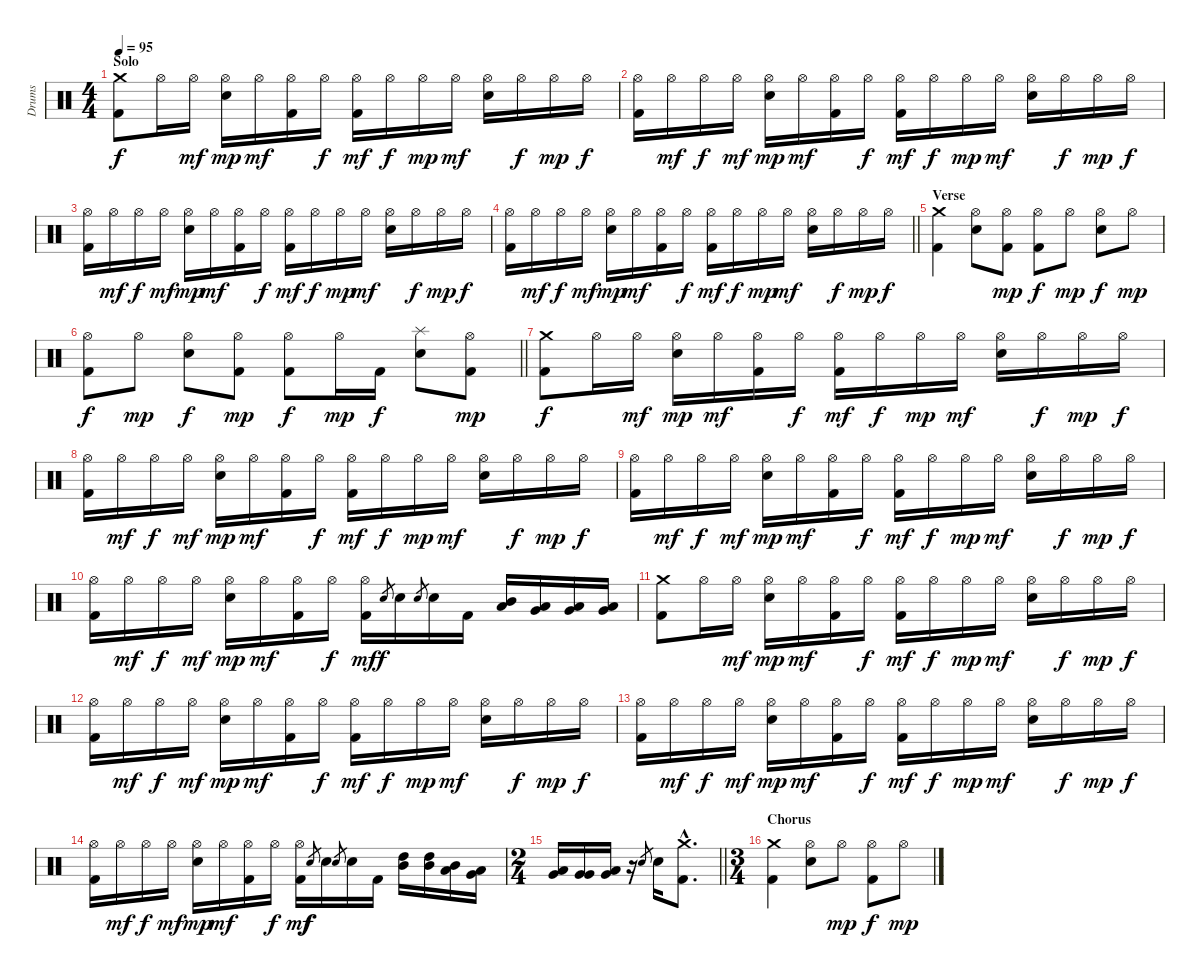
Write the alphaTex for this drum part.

\track ("Drums" "Drums") {instrument percussion}
\staff {score}
\articulation defaults
\ts (4 4)
\section ("" "Solo")
\tempo 95
\clef neutral
\ks c
("Crash medium (hit)" "Kick (hit) 2").8{dy f} "Hi-Hat (open)".16 "Hi-Hat (open)".16{dy mf} ("Hi-Hat (open)" "Snare (hit) 2").16{dy mp} "Hi-Hat (open)".16{dy mf} ("Hi-Hat (open)" "Kick (hit) 2").16 "Hi-Hat (open)".16{dy f} ("Hi-Hat (open)" "Kick (hit) 2").16{dy mf} "Hi-Hat (open)".16{dy f} "Hi-Hat (open)".16{dy mp} "Hi-Hat (open)".16{dy mf} ("Hi-Hat (open)" "Snare (hit) 2").16 "Hi-Hat (open)".16{dy f} "Hi-Hat (open)".16{dy mp} "Hi-Hat (open)".16{dy f} |
("Hi-Hat (open)" "Kick (hit) 2").16 "Hi-Hat (open)".16{dy mf} "Hi-Hat (open)".16{dy f} "Hi-Hat (open)".16{dy mf} ("Hi-Hat (open)" "Snare (hit) 2").16{dy mp} "Hi-Hat (open)".16{dy mf} ("Hi-Hat (open)" "Kick (hit) 2").16 "Hi-Hat (open)".16{dy f} ("Hi-Hat (open)" "Kick (hit) 2").16{dy mf} "Hi-Hat (open)".16{dy f} "Hi-Hat (open)".16{dy mp} "Hi-Hat (open)".16{dy mf} ("Hi-Hat (open)" "Snare (hit) 2").16 "Hi-Hat (open)".16{dy f} "Hi-Hat (open)".16{dy mp} "Hi-Hat (open)".16{dy f} |
("Hi-Hat (open)" "Kick (hit) 2").16 "Hi-Hat (open)".16{dy mf} "Hi-Hat (open)".16{dy f} "Hi-Hat (open)".16{dy mf} ("Hi-Hat (open)" "Snare (hit) 2").16{dy mp} "Hi-Hat (open)".16{dy mf} ("Hi-Hat (open)" "Kick (hit) 2").16 "Hi-Hat (open)".16{dy f} ("Hi-Hat (open)" "Kick (hit) 2").16{dy mf} "Hi-Hat (open)".16{dy f} "Hi-Hat (open)".16{dy mp} "Hi-Hat (open)".16{dy mf} ("Hi-Hat (open)" "Snare (hit) 2").16 "Hi-Hat (open)".16{dy f} "Hi-Hat (open)".16{dy mp} "Hi-Hat (open)".16{dy f} |
\barLineRight lightlight
("Hi-Hat (open)" "Kick (hit) 2").16 "Hi-Hat (open)".16{dy mf} "Hi-Hat (open)".16{dy f} "Hi-Hat (open)".16{dy mf} ("Hi-Hat (open)" "Snare (hit) 2").16{dy mp} "Hi-Hat (open)".16{dy mf} ("Hi-Hat (open)" "Kick (hit) 2").16 "Hi-Hat (open)".16{dy f} ("Hi-Hat (open)" "Kick (hit) 2").16{dy mf} "Hi-Hat (open)".16{dy f} "Hi-Hat (open)".16{dy mp} "Hi-Hat (open)".16{dy mf} ("Hi-Hat (open)" "Snare (hit) 2").16 "Hi-Hat (open)".16{dy f} "Hi-Hat (open)".16{dy mp} "Hi-Hat (open)".16{dy f} |
\section ("" "Verse")
("Crash medium (hit)" "Kick (hit) 2").4 ("Hi-Hat (open)" "Snare (hit) 2").8 ("Hi-Hat (open)" "Kick (hit) 2").8{dy mp} ("Hi-Hat (open)" "Kick (hit) 2").8{dy f} "Hi-Hat (open)".8{dy mp} ("Hi-Hat (open)" "Snare (hit) 2").8{dy f} "Hi-Hat (open)".8{dy mp} |
\barLineRight lightlight
("Hi-Hat (open)" "Kick (hit) 2").8{dy f} "Hi-Hat (open)".8{dy mp} ("Hi-Hat (open)" "Snare (hit) 2").8{dy f} ("Hi-Hat (open)" "Kick (hit) 2").8{dy mp} ("Hi-Hat (open)" "Kick (hit) 2").8{dy f} "Hi-Hat (open)".16{dy mp} "Kick (hit) 2".16{dy f} ("Splash (hit)" "Snare (hit) 2").8 ("Hi-Hat (open)" "Kick (hit) 2").8{dy mp} |
("Crash medium (hit)" "Kick (hit) 2").8{dy f} "Hi-Hat (open)".16 "Hi-Hat (open)".16{dy mf} ("Hi-Hat (open)" "Snare (hit) 2").16{dy mp} "Hi-Hat (open)".16{dy mf} ("Hi-Hat (open)" "Kick (hit) 2").16 "Hi-Hat (open)".16{dy f} ("Hi-Hat (open)" "Kick (hit) 2").16{dy mf} "Hi-Hat (open)".16{dy f} "Hi-Hat (open)".16{dy mp} "Hi-Hat (open)".16{dy mf} ("Hi-Hat (open)" "Snare (hit) 2").16 "Hi-Hat (open)".16{dy f} "Hi-Hat (open)".16{dy mp} "Hi-Hat (open)".16{dy f} |
("Hi-Hat (open)" "Kick (hit) 2").16 "Hi-Hat (open)".16{dy mf} "Hi-Hat (open)".16{dy f} "Hi-Hat (open)".16{dy mf} ("Hi-Hat (open)" "Snare (hit) 2").16{dy mp} "Hi-Hat (open)".16{dy mf} ("Hi-Hat (open)" "Kick (hit) 2").16 "Hi-Hat (open)".16{dy f} ("Hi-Hat (open)" "Kick (hit) 2").16{dy mf} "Hi-Hat (open)".16{dy f} "Hi-Hat (open)".16{dy mp} "Hi-Hat (open)".16{dy mf} ("Hi-Hat (open)" "Snare (hit) 2").16 "Hi-Hat (open)".16{dy f} "Hi-Hat (open)".16{dy mp} "Hi-Hat (open)".16{dy f} |
("Hi-Hat (open)" "Kick (hit) 2").16 "Hi-Hat (open)".16{dy mf} "Hi-Hat (open)".16{dy f} "Hi-Hat (open)".16{dy mf} ("Hi-Hat (open)" "Snare (hit) 2").16{dy mp} "Hi-Hat (open)".16{dy mf} ("Hi-Hat (open)" "Kick (hit) 2").16 "Hi-Hat (open)".16{dy f} ("Hi-Hat (open)" "Kick (hit) 2").16{dy mf} "Hi-Hat (open)".16{dy f} "Hi-Hat (open)".16{dy mp} "Hi-Hat (open)".16{dy mf} ("Hi-Hat (open)" "Snare (hit) 2").16 "Hi-Hat (open)".16{dy f} "Hi-Hat (open)".16{dy mp} "Hi-Hat (open)".16{dy f} |
("Hi-Hat (open)" "Kick (hit) 2").16 "Hi-Hat (open)".16{dy mf} "Hi-Hat (open)".16{dy f} "Hi-Hat (open)".16{dy mf} ("Hi-Hat (open)" "Snare (hit) 2").16{dy mp} "Hi-Hat (open)".16{dy mf} ("Hi-Hat (open)" "Kick (hit) 2").16 "Hi-Hat (open)".16{dy f} ("Hi-Hat (open)" "Kick (hit) 2").16{dy mf} "Electric Snare (hit)".8{gr dy f} "Snare (hit) 2".16 "Electric Snare (hit)".8{gr} "Snare (hit) 2".16 "Kick (hit) 2".16 ("Mid Tom (hit)" "Low Tom (hit)").16 ("Low Tom (hit)" "Very Low Tom (hit)").16 ("Low Tom (hit)" "Very Low Tom (hit)").16 ("Very Low Tom (hit)" "Low Floor Tom (hit)").16 |
("Crash medium (hit)" "Kick (hit) 2").8 "Hi-Hat (open)".16 "Hi-Hat (open)".16{dy mf} ("Hi-Hat (open)" "Snare (hit) 2").16{dy mp} "Hi-Hat (open)".16{dy mf} ("Hi-Hat (open)" "Kick (hit) 2").16 "Hi-Hat (open)".16{dy f} ("Hi-Hat (open)" "Kick (hit) 2").16{dy mf} "Hi-Hat (open)".16{dy f} "Hi-Hat (open)".16{dy mp} "Hi-Hat (open)".16{dy mf} ("Hi-Hat (open)" "Snare (hit) 2").16 "Hi-Hat (open)".16{dy f} "Hi-Hat (open)".16{dy mp} "Hi-Hat (open)".16{dy f} |
("Hi-Hat (open)" "Kick (hit) 2").16 "Hi-Hat (open)".16{dy mf} "Hi-Hat (open)".16{dy f} "Hi-Hat (open)".16{dy mf} ("Hi-Hat (open)" "Snare (hit) 2").16{dy mp} "Hi-Hat (open)".16{dy mf} ("Hi-Hat (open)" "Kick (hit) 2").16 "Hi-Hat (open)".16{dy f} ("Hi-Hat (open)" "Kick (hit) 2").16{dy mf} "Hi-Hat (open)".16{dy f} "Hi-Hat (open)".16{dy mp} "Hi-Hat (open)".16{dy mf} ("Hi-Hat (open)" "Snare (hit) 2").16 "Hi-Hat (open)".16{dy f} "Hi-Hat (open)".16{dy mp} "Hi-Hat (open)".16{dy f} |
("Hi-Hat (open)" "Kick (hit) 2").16 "Hi-Hat (open)".16{dy mf} "Hi-Hat (open)".16{dy f} "Hi-Hat (open)".16{dy mf} ("Hi-Hat (open)" "Snare (hit) 2").16{dy mp} "Hi-Hat (open)".16{dy mf} ("Hi-Hat (open)" "Kick (hit) 2").16 "Hi-Hat (open)".16{dy f} ("Hi-Hat (open)" "Kick (hit) 2").16{dy mf} "Hi-Hat (open)".16{dy f} "Hi-Hat (open)".16{dy mp} "Hi-Hat (open)".16{dy mf} ("Hi-Hat (open)" "Snare (hit) 2").16 "Hi-Hat (open)".16{dy f} "Hi-Hat (open)".16{dy mp} "Hi-Hat (open)".16{dy f} |
("Hi-Hat (open)" "Kick (hit) 2").16 "Hi-Hat (open)".16{dy mf} "Hi-Hat (open)".16{dy f} "Hi-Hat (open)".16{dy mf} ("Hi-Hat (open)" "Snare (hit) 2").16{dy mp} "Hi-Hat (open)".16{dy mf} ("Hi-Hat (open)" "Kick (hit) 2").16 "Hi-Hat (open)".16{dy f} ("Hi-Hat (open)" "Kick (hit) 2").16{dy mf} "Electric Snare (hit)".8{gr dy f} "Snare (hit) 2".16 "Electric Snare (hit)".8{gr} "Snare (hit) 2".16 "Kick (hit) 2".16 ("High Tom (hit)" "Mid Tom (hit)").16 ("High Tom (hit)" "Mid Tom (hit)").16 ("Mid Tom (hit)" "Low Tom (hit)").16 ("Low Tom (hit)" "Very Low Tom (hit)").16 |
\ts (2 4)
\barLineRight lightlight
("Low Tom (hit)" "Very Low Tom (hit)").16 ("Very Low Tom (hit)" "Very Low Tom (hit)").16 ("Very Low Tom (hit)" "Low Floor Tom (hit)").16 r.16 "Electric Snare (hit)".8{gr} "Snare (hit) 2".16 ("Crash medium (hit)"{hac} "Kick (hit) 2"{hac}).8{d} |
\ts (3 4)
\section ("" "Chorus")
("Crash medium (hit)" "Kick (hit) 2").4 ("Hi-Hat (open)" "Snare (hit) 2").8 "Hi-Hat (open)".8{dy mp} ("Hi-Hat (open)" "Kick (hit) 2").8{dy f} "Hi-Hat (open)".8{dy mp}
